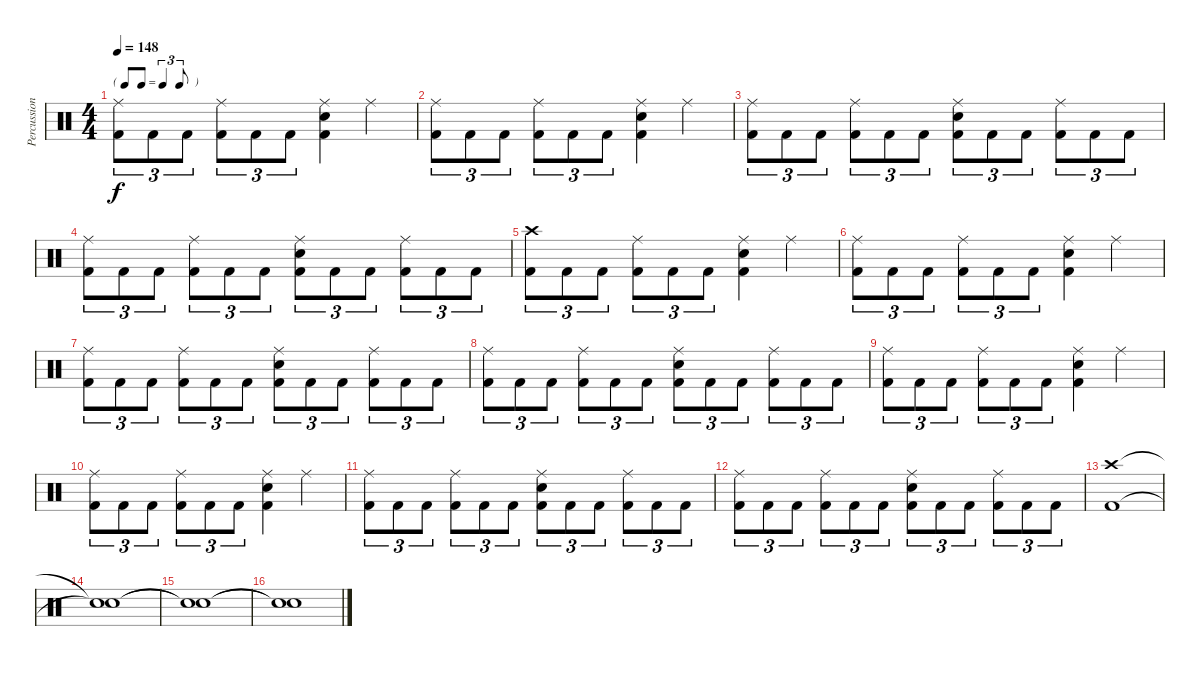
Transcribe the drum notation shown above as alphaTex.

\track ("Percussion" "Percussion") {instrument percussion}
\staff {score}
\articulation defaults
\ts (4 4)
\tf triplet8th
\tempo 148
\clef neutral
\ks c
("Ride (middle)" "Kick (hit) 2").8{tu (3 2) dy f} "Kick (hit) 2".8{tu (3 2)} "Kick (hit) 2".8{tu (3 2)} ("Ride (middle)" "Kick (hit) 2").8{tu (3 2)} "Kick (hit) 2".8{tu (3 2)} "Kick (hit) 2".8{tu (3 2)} ("Ride (middle)" "Snare (hit) 2" "Kick (hit) 2").4 "Ride (middle)".4 |
("Ride (middle)" "Kick (hit) 2").8{tu (3 2)} "Kick (hit) 2".8{tu (3 2)} "Kick (hit) 2".8{tu (3 2)} ("Ride (middle)" "Kick (hit) 2").8{tu (3 2)} "Kick (hit) 2".8{tu (3 2)} "Kick (hit) 2".8{tu (3 2)} ("Ride (middle)" "Snare (hit) 2" "Kick (hit) 2").4 "Ride (middle)".4 |
("Ride (middle)" "Kick (hit) 2").8{tu (3 2)} "Kick (hit) 2".8{tu (3 2)} "Kick (hit) 2".8{tu (3 2)} ("Ride (middle)" "Kick (hit) 2").8{tu (3 2)} "Kick (hit) 2".8{tu (3 2)} "Kick (hit) 2".8{tu (3 2)} ("Ride (middle)" "Snare (hit) 2" "Kick (hit) 2").8{tu (3 2)} "Kick (hit) 2".8{tu (3 2)} "Kick (hit) 2".8{tu (3 2)} ("Ride (middle)" "Kick (hit) 2").8{tu (3 2)} "Kick (hit) 2".8{tu (3 2)} "Kick (hit) 2".8{tu (3 2)} |
("Ride (middle)" "Kick (hit) 2").8{tu (3 2)} "Kick (hit) 2".8{tu (3 2)} "Kick (hit) 2".8{tu (3 2)} ("Ride (middle)" "Kick (hit) 2").8{tu (3 2)} "Kick (hit) 2".8{tu (3 2)} "Kick (hit) 2".8{tu (3 2)} ("Ride (middle)" "Snare (hit) 2" "Kick (hit) 2").8{tu (3 2)} "Kick (hit) 2".8{tu (3 2)} "Kick (hit) 2".8{tu (3 2)} ("Ride (middle)" "Kick (hit) 2").8{tu (3 2)} "Kick (hit) 2".8{tu (3 2)} "Kick (hit) 2".8{tu (3 2)} |
("Crash high (hit)" "Kick (hit) 2").8{tu (3 2)} "Kick (hit) 2".8{tu (3 2)} "Kick (hit) 2".8{tu (3 2)} ("Ride (middle)" "Kick (hit) 2").8{tu (3 2)} "Kick (hit) 2".8{tu (3 2)} "Kick (hit) 2".8{tu (3 2)} ("Ride (middle)" "Snare (hit) 2" "Kick (hit) 2").4 "Ride (middle)".4 |
("Ride (middle)" "Kick (hit) 2").8{tu (3 2)} "Kick (hit) 2".8{tu (3 2)} "Kick (hit) 2".8{tu (3 2)} ("Ride (middle)" "Kick (hit) 2").8{tu (3 2)} "Kick (hit) 2".8{tu (3 2)} "Kick (hit) 2".8{tu (3 2)} ("Ride (middle)" "Snare (hit) 2" "Kick (hit) 2").4 "Ride (middle)".4 |
("Ride (middle)" "Kick (hit) 2").8{tu (3 2)} "Kick (hit) 2".8{tu (3 2)} "Kick (hit) 2".8{tu (3 2)} ("Ride (middle)" "Kick (hit) 2").8{tu (3 2)} "Kick (hit) 2".8{tu (3 2)} "Kick (hit) 2".8{tu (3 2)} ("Ride (middle)" "Snare (hit) 2" "Kick (hit) 2").8{tu (3 2)} "Kick (hit) 2".8{tu (3 2)} "Kick (hit) 2".8{tu (3 2)} ("Ride (middle)" "Kick (hit) 2").8{tu (3 2)} "Kick (hit) 2".8{tu (3 2)} "Kick (hit) 2".8{tu (3 2)} |
("Ride (middle)" "Kick (hit) 2").8{tu (3 2)} "Kick (hit) 2".8{tu (3 2)} "Kick (hit) 2".8{tu (3 2)} ("Ride (middle)" "Kick (hit) 2").8{tu (3 2)} "Kick (hit) 2".8{tu (3 2)} "Kick (hit) 2".8{tu (3 2)} ("Ride (middle)" "Snare (hit) 2" "Kick (hit) 2").8{tu (3 2)} "Kick (hit) 2".8{tu (3 2)} "Kick (hit) 2".8{tu (3 2)} ("Ride (middle)" "Kick (hit) 2").8{tu (3 2)} "Kick (hit) 2".8{tu (3 2)} "Kick (hit) 2".8{tu (3 2)} |
("Ride (middle)" "Kick (hit) 2").8{tu (3 2)} "Kick (hit) 2".8{tu (3 2)} "Kick (hit) 2".8{tu (3 2)} ("Ride (middle)" "Kick (hit) 2").8{tu (3 2)} "Kick (hit) 2".8{tu (3 2)} "Kick (hit) 2".8{tu (3 2)} ("Ride (middle)" "Snare (hit) 2" "Kick (hit) 2").4 "Ride (middle)".4 |
("Ride (middle)" "Kick (hit) 2").8{tu (3 2)} "Kick (hit) 2".8{tu (3 2)} "Kick (hit) 2".8{tu (3 2)} ("Ride (middle)" "Kick (hit) 2").8{tu (3 2)} "Kick (hit) 2".8{tu (3 2)} "Kick (hit) 2".8{tu (3 2)} ("Ride (middle)" "Snare (hit) 2" "Kick (hit) 2").4 "Ride (middle)".4 |
("Ride (middle)" "Kick (hit) 2").8{tu (3 2)} "Kick (hit) 2".8{tu (3 2)} "Kick (hit) 2".8{tu (3 2)} ("Ride (middle)" "Kick (hit) 2").8{tu (3 2)} "Kick (hit) 2".8{tu (3 2)} "Kick (hit) 2".8{tu (3 2)} ("Ride (middle)" "Snare (hit) 2" "Kick (hit) 2").8{tu (3 2)} "Kick (hit) 2".8{tu (3 2)} "Kick (hit) 2".8{tu (3 2)} ("Ride (middle)" "Kick (hit) 2").8{tu (3 2)} "Kick (hit) 2".8{tu (3 2)} "Kick (hit) 2".8{tu (3 2)} |
("Ride (middle)" "Kick (hit) 2").8{tu (3 2)} "Kick (hit) 2".8{tu (3 2)} "Kick (hit) 2".8{tu (3 2)} ("Ride (middle)" "Kick (hit) 2").8{tu (3 2)} "Kick (hit) 2".8{tu (3 2)} "Kick (hit) 2".8{tu (3 2)} ("Ride (middle)" "Snare (hit) 2" "Kick (hit) 2").8{tu (3 2)} "Kick (hit) 2".8{tu (3 2)} "Kick (hit) 2".8{tu (3 2)} ("Ride (middle)" "Kick (hit) 2").8{tu (3 2)} "Kick (hit) 2".8{tu (3 2)} "Kick (hit) 2".8{tu (3 2)} |
("Crash high (hit)" "Kick (hit) 2").1 |
("Snare (hit)"{t} "Snare (hit)"{t}).1 |
("Snare (hit)"{t} "Snare (hit)"{t}).1 |
("Snare (hit)"{t} "Snare (hit)"{t}).1
